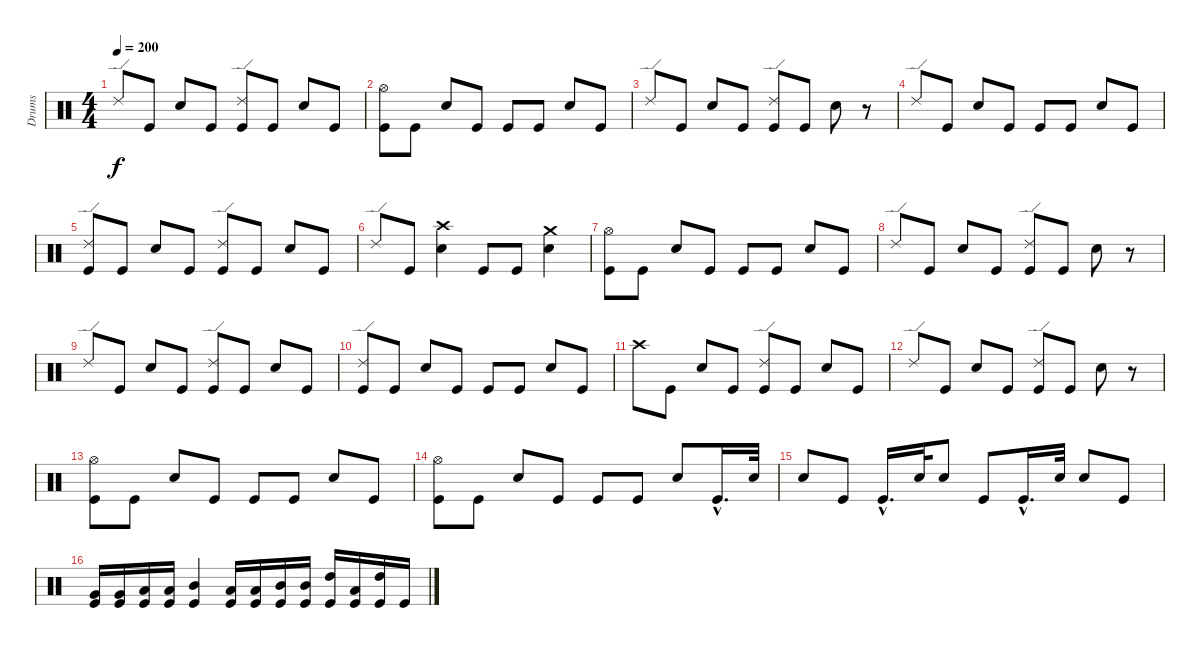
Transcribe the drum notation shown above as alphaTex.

\track ("Drums" "Drums") {instrument percussion}
\staff {score}
\articulation defaults
\ts (4 4)
\tempo 200
\clef neutral
\ks c "Ride (edge) 2".8{dy f} "Kick (hit)".8 "Snare (hit) 2".8 "Kick (hit)".8
("Ride (edge) 2" "Kick (hit)").8 "Kick (hit)".8 "Snare (hit) 2".8 "Kick (hit)".8 |
("Hi-Hat (open)" "Kick (hit)").8 "Kick (hit)".8 "Snare (hit) 2".8 "Kick (hit)".8 "Kick (hit)".8 "Kick (hit)".8 "Snare (hit) 2".8 "Kick (hit)".8 |
"Ride (edge) 2".8 "Kick (hit)".8 "Snare (hit) 2".8 "Kick (hit)".8 ("Ride (edge) 2" "Kick (hit)").8 "Kick (hit)".8 "Snare (hit) 2".8 r.8 |
"Ride (edge) 2".8 "Kick (hit)".8 "Snare (hit) 2".8 "Kick (hit)".8 "Kick (hit)".8 "Kick (hit)".8 "Snare (hit) 2".8 "Kick (hit)".8 |
("Ride (edge) 2" "Kick (hit)").8 "Kick (hit)".8 "Snare (hit) 2".8 "Kick (hit)".8 ("Ride (edge) 2" "Kick (hit)").8 "Kick (hit)".8 "Snare (hit) 2".8 "Kick (hit)".8 |
"Ride (edge) 2".8 "Kick (hit)".8 ("Crash high (hit)" "Snare (hit) 2").4 "Kick (hit)".8 "Kick (hit)".8 ("Crash medium (hit)" "Snare (hit) 2").4 |
("Hi-Hat (open)" "Kick (hit)").8 "Kick (hit)".8 "Snare (hit) 2".8 "Kick (hit)".8 "Kick (hit)".8 "Kick (hit)".8 "Snare (hit) 2".8 "Kick (hit)".8 |
"Ride (edge) 2".8 "Kick (hit)".8 "Snare (hit) 2".8 "Kick (hit)".8 ("Ride (edge) 2" "Kick (hit)").8 "Kick (hit)".8 "Snare (hit) 2".8 r.8 |
"Ride (edge) 2".8 "Kick (hit)".8 "Snare (hit) 2".8 "Kick (hit)".8 ("Ride (edge) 2" "Kick (hit)").8 "Kick (hit)".8 "Snare (hit) 2".8 "Kick (hit)".8 |
("Ride (edge) 2" "Kick (hit)").8 "Kick (hit)".8 "Snare (hit) 2".8 "Kick (hit)".8 "Kick (hit)".8 "Kick (hit)".8 "Snare (hit) 2".8 "Kick (hit)".8 |
"Crash high (hit)".8 "Kick (hit)".8 "Snare (hit) 2".8 "Kick (hit)".8 ("Ride (edge) 2" "Kick (hit)").8 "Kick (hit)".8 "Snare (hit) 2".8 "Kick (hit)".8 |
"Ride (edge) 2".8 "Kick (hit)".8 "Snare (hit) 2".8 "Kick (hit)".8 ("Ride (edge) 2" "Kick (hit)").8 "Kick (hit)".8 "Snare (hit) 2".8 r.8 |
("Hi-Hat (open)" "Kick (hit)").8 "Kick (hit)".8 "Snare (hit) 2".8 "Kick (hit)".8 "Kick (hit)".8 "Kick (hit)".8 "Snare (hit) 2".8 "Kick (hit)".8 |
("Hi-Hat (open)" "Kick (hit)").8 "Kick (hit)".8 "Snare (hit) 2".8 "Kick (hit)".8 "Kick (hit)".8 "Kick (hit)".8 "Snare (hit) 2".8 "Kick (hit)"{hac}.16{d} "Snare (hit) 2".32 |
"Snare (hit) 2".8 "Kick (hit)".8 "Kick (hit)"{hac}.16{d} "Snare (hit) 2".32 "Snare (hit) 2".8 "Kick (hit)".8 "Kick (hit)"{hac}.16{d} "Snare (hit) 2".32 "Snare (hit) 2".8 "Kick (hit)".8 |
("Very Low Tom (hit)" "Kick (hit)").16 ("Very Low Tom (hit)" "Kick (hit)").16 ("Low Tom (hit)" "Kick (hit)").16 ("Low Tom (hit)" "Kick (hit)").16 ("Mid Tom (hit)" "Kick (hit)").4 ("Low Tom (hit)" "Kick (hit)").16 ("Low Tom (hit)" "Kick (hit)").16 ("Mid Tom (hit)" "Kick (hit)").16 ("Mid Tom (hit)" "Kick (hit)").16 ("High Tom (hit)" "Kick (hit)").16 ("Low Tom (hit)" "Kick (hit)").16 ("High Tom (hit)" "Kick (hit)").16 "Kick (hit)".16
